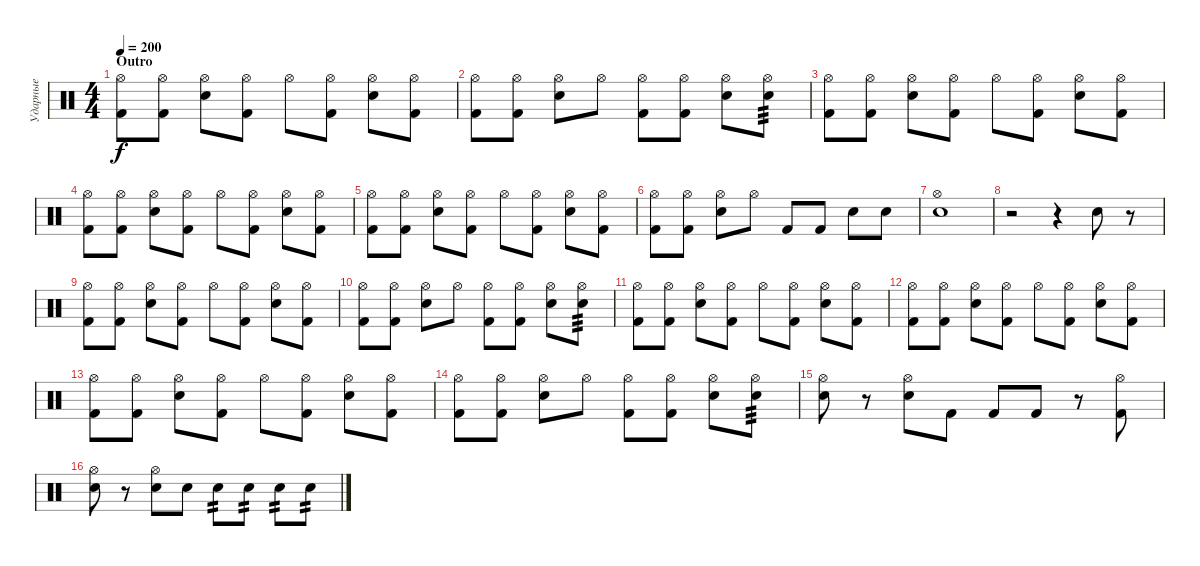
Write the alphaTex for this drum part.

\track ("Ударные" "Ударные") {instrument percussion}
\staff {score}
\articulation defaults
\ts (4 4)
\section ("" "Outro")
\tempo 200
\clef neutral
\ks c
("Kick (hit) 2" "Hi-Hat (open)").8{dy f} ("Kick (hit) 2" "Hi-Hat (open)").8 ("Snare (hit) 2" "Hi-Hat (open)").8 ("Kick (hit) 2" "Hi-Hat (open)").8 "Hi-Hat (open)".8 ("Kick (hit) 2" "Hi-Hat (open)").8 ("Snare (hit) 2" "Hi-Hat (open)").8 ("Kick (hit) 2" "Hi-Hat (open)").8 |
("Kick (hit) 2" "Hi-Hat (open)").8 ("Kick (hit) 2" "Hi-Hat (open)").8 ("Snare (hit) 2" "Hi-Hat (open)").8 "Hi-Hat (open)".8 ("Kick (hit) 2" "Hi-Hat (open)").8 ("Kick (hit) 2" "Hi-Hat (open)").8 ("Snare (hit) 2" "Hi-Hat (open)").8 ("Snare (hit) 2" "Hi-Hat (open)").8{tp 3} |
("Kick (hit) 2" "Hi-Hat (open)").8 ("Kick (hit) 2" "Hi-Hat (open)").8 ("Snare (hit) 2" "Hi-Hat (open)").8 ("Kick (hit) 2" "Hi-Hat (open)").8 "Hi-Hat (open)".8 ("Kick (hit) 2" "Hi-Hat (open)").8 ("Snare (hit) 2" "Hi-Hat (open)").8 ("Kick (hit) 2" "Hi-Hat (open)").8 |
("Kick (hit) 2" "Hi-Hat (open)").8 ("Kick (hit) 2" "Hi-Hat (open)").8 ("Snare (hit) 2" "Hi-Hat (open)").8 ("Kick (hit) 2" "Hi-Hat (open)").8 "Hi-Hat (open)".8 ("Kick (hit) 2" "Hi-Hat (open)").8 ("Snare (hit) 2" "Hi-Hat (open)").8 ("Kick (hit) 2" "Hi-Hat (open)").8 |
("Kick (hit) 2" "Hi-Hat (open)").8 ("Kick (hit) 2" "Hi-Hat (open)").8 ("Snare (hit) 2" "Hi-Hat (open)").8 ("Kick (hit) 2" "Hi-Hat (open)").8 "Hi-Hat (open)".8 ("Kick (hit) 2" "Hi-Hat (open)").8 ("Snare (hit) 2" "Hi-Hat (open)").8 ("Kick (hit) 2" "Hi-Hat (open)").8 |
("Kick (hit) 2" "Hi-Hat (open)").8 ("Kick (hit) 2" "Hi-Hat (open)").8 ("Snare (hit) 2" "Hi-Hat (open)").8 "Hi-Hat (open)".8 "Kick (hit) 2".8 "Kick (hit) 2".8 "Snare (hit) 2".8 "Snare (hit) 2".8 |
("Hi-Hat (open)" "Snare (hit) 2").1 |
r.2 r.4 "Snare (hit) 2".8 r.8 |
("Kick (hit) 2" "Hi-Hat (open)").8 ("Kick (hit) 2" "Hi-Hat (open)").8 ("Snare (hit) 2" "Hi-Hat (open)").8 ("Kick (hit) 2" "Hi-Hat (open)").8 "Hi-Hat (open)".8 ("Kick (hit) 2" "Hi-Hat (open)").8 ("Snare (hit) 2" "Hi-Hat (open)").8 ("Kick (hit) 2" "Hi-Hat (open)").8 |
("Kick (hit) 2" "Hi-Hat (open)").8 ("Kick (hit) 2" "Hi-Hat (open)").8 ("Snare (hit) 2" "Hi-Hat (open)").8 "Hi-Hat (open)".8 ("Kick (hit) 2" "Hi-Hat (open)").8 ("Kick (hit) 2" "Hi-Hat (open)").8 ("Snare (hit) 2" "Hi-Hat (open)").8 ("Snare (hit) 2" "Hi-Hat (open)").8{tp 3} |
("Kick (hit) 2" "Hi-Hat (open)").8 ("Kick (hit) 2" "Hi-Hat (open)").8 ("Snare (hit) 2" "Hi-Hat (open)").8 ("Kick (hit) 2" "Hi-Hat (open)").8 "Hi-Hat (open)".8 ("Kick (hit) 2" "Hi-Hat (open)").8 ("Snare (hit) 2" "Hi-Hat (open)").8 ("Kick (hit) 2" "Hi-Hat (open)").8 |
("Kick (hit) 2" "Hi-Hat (open)").8 ("Kick (hit) 2" "Hi-Hat (open)").8 ("Snare (hit) 2" "Hi-Hat (open)").8 ("Kick (hit) 2" "Hi-Hat (open)").8 "Hi-Hat (open)".8 ("Kick (hit) 2" "Hi-Hat (open)").8 ("Snare (hit) 2" "Hi-Hat (open)").8 ("Kick (hit) 2" "Hi-Hat (open)").8 |
("Kick (hit) 2" "Hi-Hat (open)").8 ("Kick (hit) 2" "Hi-Hat (open)").8 ("Snare (hit) 2" "Hi-Hat (open)").8 ("Kick (hit) 2" "Hi-Hat (open)").8 "Hi-Hat (open)".8 ("Kick (hit) 2" "Hi-Hat (open)").8 ("Snare (hit) 2" "Hi-Hat (open)").8 ("Kick (hit) 2" "Hi-Hat (open)").8 |
("Kick (hit) 2" "Hi-Hat (open)").8 ("Kick (hit) 2" "Hi-Hat (open)").8 ("Snare (hit) 2" "Hi-Hat (open)").8 "Hi-Hat (open)".8 ("Kick (hit) 2" "Hi-Hat (open)").8 ("Kick (hit) 2" "Hi-Hat (open)").8 ("Snare (hit) 2" "Hi-Hat (open)").8 ("Snare (hit) 2" "Hi-Hat (open)").8{tp 3} |
("Snare (hit) 2" "Hi-Hat (open)").8 r.8 ("Snare (hit) 2" "Hi-Hat (open)").8 "Kick (hit) 2".8 "Kick (hit) 2".8 "Kick (hit) 2".8 r.8 ("Kick (hit) 2" "Hi-Hat (open)").8 |
("Snare (hit) 2" "Hi-Hat (open)").8 r.8 ("Snare (hit) 2" "Hi-Hat (open)").8 "Snare (hit) 2".8 "Snare (hit) 2".8{tp 2} "Snare (hit) 2".8{tp 2} "Snare (hit) 2".8{tp 2} "Snare (hit) 2".8{tp 2}
